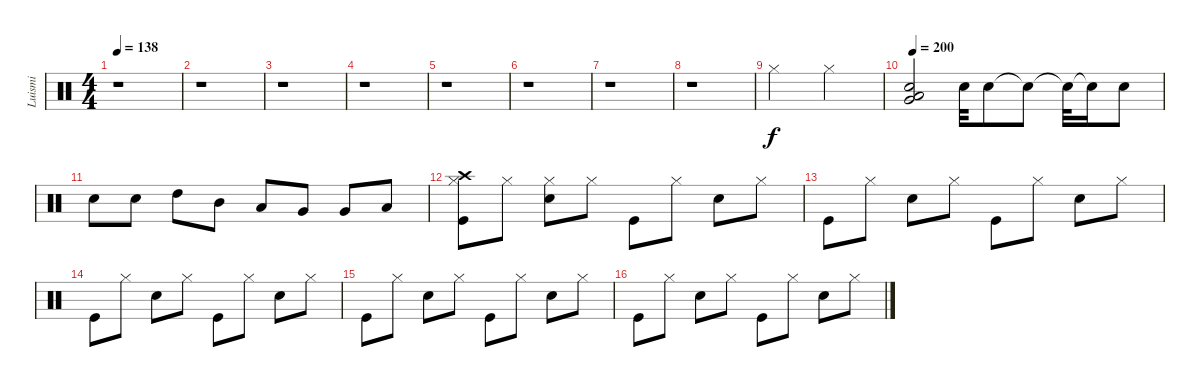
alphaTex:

\track ("Luismi" "Luismi") {instrument percussion}
\staff {score}
\articulation defaults
\ts (4 4)
\tempo 138
\clef neutral
\ks c
r.1{dy f} |
r.1 |
r.1 |
r.1 |
r.1 |
r.1 |
r.1 |
r.1 |
"Hi-Hat (closed)".2 "Hi-Hat (closed)".2 |
\tempo 200
("Snare (hit) 2" "Low Floor Tom (hit)" "Very Low Tom (hit)").2 "Snare (hit) 2".32 "Electric Snare (hit)".8 "Electric Snare (hit)"{t}.8 "Electric Snare (hit)"{t}.32 "Electric Snare (hit)"{t}.16 "Electric Snare (hit)".8 |
"Snare (hit) 2".8 "Snare (hit) 2".8 "High Tom (hit)".8 "Mid Tom (hit)".8 "Low Tom (hit)".8 "Very Low Tom (hit)".8 "Very Low Tom (hit)".8 "Low Floor Tom (hit)".8 |
("Kick (hit)" "Crash high (hit)" "Hi-Hat (closed)").8 "Hi-Hat (closed)".8 ("Snare (hit) 2" "Hi-Hat (closed)").8 "Hi-Hat (closed)".8 "Kick (hit)".8 "Hi-Hat (closed)".8 "Snare (hit) 2".8 "Hi-Hat (closed)".8 |
"Kick (hit)".8 "Hi-Hat (closed)".8 "Snare (hit) 2".8 "Hi-Hat (closed)".8 "Kick (hit)".8 "Hi-Hat (closed)".8 "Snare (hit) 2".8 "Hi-Hat (closed)".8 |
"Kick (hit)".8 "Hi-Hat (closed)".8 "Snare (hit) 2".8 "Hi-Hat (closed)".8 "Kick (hit)".8 "Hi-Hat (closed)".8 "Snare (hit) 2".8 "Hi-Hat (closed)".8 |
"Kick (hit)".8 "Hi-Hat (closed)".8 "Snare (hit) 2".8 "Hi-Hat (closed)".8 "Kick (hit)".8 "Hi-Hat (closed)".8 "Snare (hit) 2".8 "Hi-Hat (closed)".8 |
"Kick (hit)".8 "Hi-Hat (closed)".8 "Snare (hit) 2".8 "Hi-Hat (closed)".8 "Kick (hit)".8 "Hi-Hat (closed)".8 "Snare (hit) 2".8 "Hi-Hat (closed)".8
